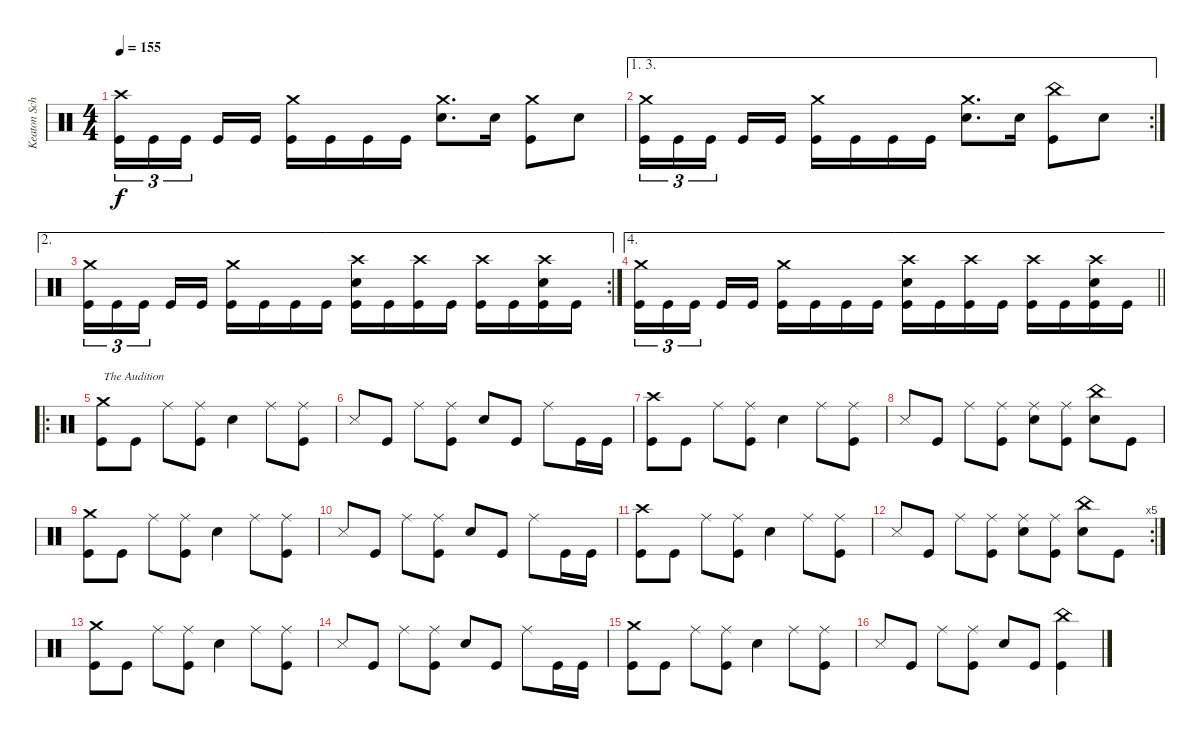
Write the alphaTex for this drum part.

\track ("Keaton Schluchter Drums" "Keaton Sch") {instrument percussion bank 20}
\staff {score}
\articulation defaults
\ts (4 4)
\tempo 155
\clef neutral
\ks c
("Crash high (hit)" "Kick (hit)").16{tu (3 2) dy f} "Kick (hit)".16{tu (3 2)} "Kick (hit)".16{tu (3 2) beam splitsecondary} "Kick (hit)".16 "Kick (hit)".16 ("Crash medium (hit)" "Kick (hit)").16 "Kick (hit)".16 "Kick (hit)".16 "Kick (hit)".16 ("Crash medium (hit)" "Electric Snare (hit)").8{d} "Electric Snare (hit)".16 ("Crash medium (hit)" "Kick (hit)").8 "Electric Snare (hit)".8 |
\ae (1 3)
\rc 2
("Crash medium (hit)" "Kick (hit)").16{tu (3 2)} "Kick (hit)".16{tu (3 2)} "Kick (hit)".16{tu (3 2) beam splitsecondary} "Kick (hit)".16 "Kick (hit)".16 ("Crash medium (hit)" "Kick (hit)").16 "Kick (hit)".16 "Kick (hit)".16 "Kick (hit)".16 ("Crash medium (hit)" "Electric Snare (hit)").8{d} "Electric Snare (hit)".16 ("China (hit)" "Kick (hit)").8 "Electric Snare (hit)".8 |
\ae 2
\rc 2
("Crash medium (hit)" "Kick (hit)").16{tu (3 2)} "Kick (hit)".16{tu (3 2)} "Kick (hit)".16{tu (3 2) beam splitsecondary} "Kick (hit)".16 "Kick (hit)".16 ("Crash medium (hit)" "Kick (hit)").16 "Kick (hit)".16 "Kick (hit)".16 "Kick (hit)".16 ("Crash high (hit)" "Electric Snare (hit)" "Kick (hit)").16 "Kick (hit)".16 ("Crash high (hit)" "Kick (hit)").16 "Kick (hit)".16 ("Crash high (hit)" "Kick (hit)").16 "Kick (hit)".16 ("Crash high (hit)" "Electric Snare (hit)" "Kick (hit)").16 "Kick (hit)".16 |
\ae 4
\barLineRight lightlight
("Crash medium (hit)" "Kick (hit)").16{tu (3 2)} "Kick (hit)".16{tu (3 2)} "Kick (hit)".16{tu (3 2) beam splitsecondary} "Kick (hit)".16 "Kick (hit)".16 ("Crash medium (hit)" "Kick (hit)").16 "Kick (hit)".16 "Kick (hit)".16 "Kick (hit)".16 ("Crash high (hit)" "Electric Snare (hit)" "Kick (hit)").16 "Kick (hit)".16 ("Crash high (hit)" "Kick (hit)").16 "Kick (hit)".16 ("Crash high (hit)" "Kick (hit)").16 "Kick (hit)".16 ("Crash high (hit)" "Electric Snare (hit)" "Kick (hit)").16 "Kick (hit)".16 |
\ro
("Crash medium (hit)" "Kick (hit)").8{txt "The Audition"} "Kick (hit)".8 "Ride (middle)".8 ("Ride (middle)" "Kick (hit)").8 "Electric Snare (hit)".4 "Ride (middle)".8 ("Ride (middle)" "Kick (hit)").8 |
"Snare (side stick) 3".8 "Kick (hit)".8 "Ride (middle)".8 ("Ride (middle)" "Kick (hit)").8 "Electric Snare (hit)".8 "Kick (hit)".8 "Ride (middle)".8 "Kick (hit)".16 "Kick (hit)".16 |
("Crash high (hit)" "Kick (hit)").8 "Kick (hit)".8 "Ride (middle)".8 ("Ride (middle)" "Kick (hit)").8 "Electric Snare (hit)".4 "Ride (middle)".8 ("Ride (middle)" "Kick (hit)").8 |
"Snare (side stick) 3".8 "Kick (hit)".8 "Ride (middle)".8 ("Ride (middle)" "Kick (hit)").8 ("Ride (middle)" "Electric Snare (hit)").8 ("Ride (middle)" "Kick (hit)").8 ("China (hit)" "Electric Snare (hit)").8 "Kick (hit)".8 |
("Crash medium (hit)" "Kick (hit)").8 "Kick (hit)".8 "Ride (middle)".8 ("Ride (middle)" "Kick (hit)").8 "Electric Snare (hit)".4 "Ride (middle)".8 ("Ride (middle)" "Kick (hit)").8 |
"Snare (side stick) 3".8 "Kick (hit)".8 "Ride (middle)".8 ("Ride (middle)" "Kick (hit)").8 "Electric Snare (hit)".8 "Kick (hit)".8 "Ride (middle)".8 "Kick (hit)".16 "Kick (hit)".16 |
("Crash high (hit)" "Kick (hit)").8 "Kick (hit)".8 "Ride (middle)".8 ("Ride (middle)" "Kick (hit)").8 "Electric Snare (hit)".4 "Ride (middle)".8 ("Ride (middle)" "Kick (hit)").8 |
\rc 5 "Snare (side stick) 3".8 "Kick (hit)".8 "Ride (middle)".8
("Ride (middle)" "Kick (hit)").8 ("Ride (middle)" "Electric Snare (hit)").8 ("Ride (middle)" "Kick (hit)").8 ("China (hit)" "Electric Snare (hit)").8 "Kick (hit)".8 |
("Crash medium (hit)" "Kick (hit)").8 "Kick (hit)".8 "Ride (middle)".8 ("Ride (middle)" "Kick (hit)").8 "Electric Snare (hit)".4 "Ride (middle)".8 ("Ride (middle)" "Kick (hit)").8 |
"Snare (side stick) 3".8 "Kick (hit)".8 "Ride (middle)".8 ("Ride (middle)" "Kick (hit)").8 "Electric Snare (hit)".8 "Kick (hit)".8 "Ride (middle)".8 "Kick (hit)".16 "Kick (hit)".16 |
("Crash medium (hit)" "Kick (hit)").8 "Kick (hit)".8 "Ride (middle)".8 ("Ride (middle)" "Kick (hit)").8 "Electric Snare (hit)".4 "Ride (middle)".8 ("Ride (middle)" "Kick (hit)").8 |
"Snare (side stick) 3".8 "Kick (hit)".8 "Ride (middle)".8 ("Ride (middle)" "Kick (hit)").8 "Electric Snare (hit)".8 "Kick (hit)".8 ("China (hit)" "Kick (hit)").4
